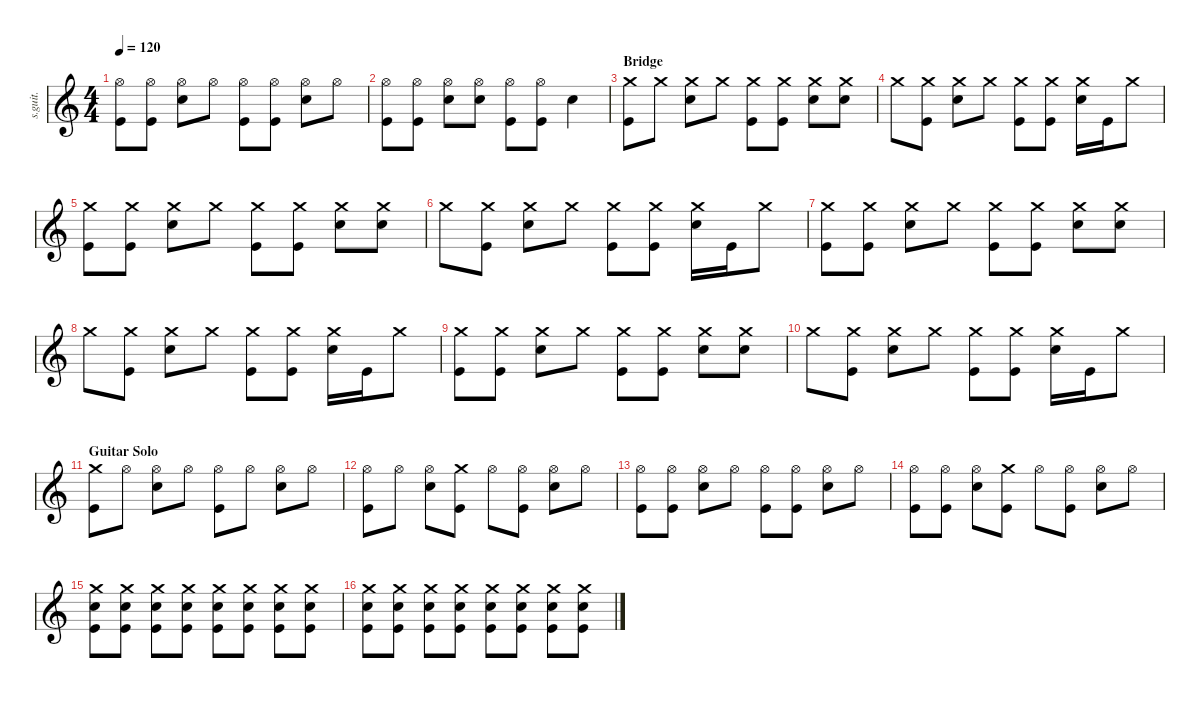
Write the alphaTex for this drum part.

\defaultSystemsLayout 4
\hideDynamics
\bracketExtendMode nobrackets
\track ("Patrick Wilson - Drums" "s.guit.") {instrument percussion}
\staff {score}
\articulation defaults
\ts (4 4)
\tempo 120
\clef g2
\ks c
("Hi-Hat (open)" "Kick (hit)").8{lyrics (0 "") lyrics (1 "") lyrics (2 "") lyrics (3 "") lyrics (4 "") dy f} ("Hi-Hat (open)" "Kick (hit)").8{lyrics (0 "") lyrics (1 "") lyrics (2 "") lyrics (3 "") lyrics (4 "")} ("Hi-Hat (open)" "Snare (hit) 2").8{lyrics (0 "") lyrics (1 "") lyrics (2 "") lyrics (3 "") lyrics (4 "")} "Hi-Hat (open)".8{lyrics (0 "") lyrics (1 "") lyrics (2 "") lyrics (3 "") lyrics (4 "")} ("Hi-Hat (open)" "Kick (hit)").8{lyrics (0 "") lyrics (1 "") lyrics (2 "") lyrics (3 "") lyrics (4 "")} ("Hi-Hat (open)" "Kick (hit)").8{lyrics (0 "") lyrics (1 "") lyrics (2 "") lyrics (3 "") lyrics (4 "")} ("Hi-Hat (open)" "Snare (hit) 2").8{lyrics (0 "") lyrics (1 "") lyrics (2 "") lyrics (3 "") lyrics (4 "")} "Hi-Hat (open)".8{lyrics (0 "") lyrics (1 "") lyrics (2 "") lyrics (3 "") lyrics (4 "")} |
("Hi-Hat (open)" "Kick (hit)").8{lyrics (0 "") lyrics (1 "") lyrics (2 "") lyrics (3 "") lyrics (4 "")} ("Hi-Hat (open)" "Kick (hit)").8{lyrics (0 "") lyrics (1 "") lyrics (2 "") lyrics (3 "") lyrics (4 "")} ("Hi-Hat (open)" "Snare (hit) 2").8{lyrics (0 "") lyrics (1 "") lyrics (2 "") lyrics (3 "") lyrics (4 "")} ("Hi-Hat (open)" "Snare (hit) 2").8{lyrics (0 "") lyrics (1 "") lyrics (2 "") lyrics (3 "") lyrics (4 "")} ("Hi-Hat (open)" "Kick (hit)").8{lyrics (0 "") lyrics (1 "") lyrics (2 "") lyrics (3 "") lyrics (4 "")} ("Hi-Hat (open)" "Kick (hit)").8{lyrics (0 "") lyrics (1 "") lyrics (2 "") lyrics (3 "") lyrics (4 "")} "Snare (hit) 2".4{lyrics (0 "") lyrics (1 "") lyrics (2 "") lyrics (3 "") lyrics (4 "")} |
\section ("" "Bridge")
("Crash medium (hit)" "Kick (hit)").8{lyrics (0 "") lyrics (1 "") lyrics (2 "") lyrics (3 "") lyrics (4 "")} "Crash medium (hit)".8{lyrics (0 "") lyrics (1 "") lyrics (2 "") lyrics (3 "") lyrics (4 "")} ("Crash medium (hit)" "Snare (hit) 2").8{lyrics (0 "") lyrics (1 "") lyrics (2 "") lyrics (3 "") lyrics (4 "")} "Crash medium (hit)".8{lyrics (0 "") lyrics (1 "") lyrics (2 "") lyrics (3 "") lyrics (4 "")} ("Crash medium (hit)" "Kick (hit)").8{lyrics (0 "") lyrics (1 "") lyrics (2 "") lyrics (3 "") lyrics (4 "")} ("Crash medium (hit)" "Kick (hit)").8{lyrics (0 "") lyrics (1 "") lyrics (2 "") lyrics (3 "") lyrics (4 "")} ("Crash medium (hit)" "Snare (hit) 2").8{lyrics (0 "") lyrics (1 "") lyrics (2 "") lyrics (3 "") lyrics (4 "")} ("Crash medium (hit)" "Snare (hit) 2").8{lyrics (0 "") lyrics (1 "") lyrics (2 "") lyrics (3 "") lyrics (4 "")} |
"Crash medium (hit)".8{lyrics (0 "") lyrics (1 "") lyrics (2 "") lyrics (3 "") lyrics (4 "")} ("Crash medium (hit)" "Kick (hit)").8{lyrics (0 "") lyrics (1 "") lyrics (2 "") lyrics (3 "") lyrics (4 "")} ("Crash medium (hit)" "Snare (hit) 2").8{lyrics (0 "") lyrics (1 "") lyrics (2 "") lyrics (3 "") lyrics (4 "")} "Crash medium (hit)".8{lyrics (0 "") lyrics (1 "") lyrics (2 "") lyrics (3 "") lyrics (4 "")} ("Crash medium (hit)" "Kick (hit)").8{lyrics (0 "") lyrics (1 "") lyrics (2 "") lyrics (3 "") lyrics (4 "")} ("Crash medium (hit)" "Kick (hit)").8{lyrics (0 "") lyrics (1 "") lyrics (2 "") lyrics (3 "") lyrics (4 "")} ("Crash medium (hit)" "Snare (hit) 2").16{lyrics (0 "") lyrics (1 "") lyrics (2 "") lyrics (3 "") lyrics (4 "")} "Kick (hit)".16{lyrics (0 "") lyrics (1 "") lyrics (2 "") lyrics (3 "") lyrics (4 "")} "Crash medium (hit)".8{lyrics (0 "") lyrics (1 "") lyrics (2 "") lyrics (3 "") lyrics (4 "")} |
("Crash medium (hit)" "Kick (hit)").8{lyrics (0 "") lyrics (1 "") lyrics (2 "") lyrics (3 "") lyrics (4 "")} ("Crash medium (hit)" "Kick (hit)").8{lyrics (0 "") lyrics (1 "") lyrics (2 "") lyrics (3 "") lyrics (4 "")} ("Crash medium (hit)" "Snare (hit) 2").8{lyrics (0 "") lyrics (1 "") lyrics (2 "") lyrics (3 "") lyrics (4 "")} "Crash medium (hit)".8{lyrics (0 "") lyrics (1 "") lyrics (2 "") lyrics (3 "") lyrics (4 "")} ("Crash medium (hit)" "Kick (hit)").8{lyrics (0 "") lyrics (1 "") lyrics (2 "") lyrics (3 "") lyrics (4 "")} ("Crash medium (hit)" "Kick (hit)").8{lyrics (0 "") lyrics (1 "") lyrics (2 "") lyrics (3 "") lyrics (4 "")} ("Crash medium (hit)" "Snare (hit) 2").8{lyrics (0 "") lyrics (1 "") lyrics (2 "") lyrics (3 "") lyrics (4 "")} ("Crash medium (hit)" "Snare (hit) 2").8{lyrics (0 "") lyrics (1 "") lyrics (2 "") lyrics (3 "") lyrics (4 "")} |
"Crash medium (hit)".8{lyrics (0 "") lyrics (1 "") lyrics (2 "") lyrics (3 "") lyrics (4 "")} ("Crash medium (hit)" "Kick (hit)").8{lyrics (0 "") lyrics (1 "") lyrics (2 "") lyrics (3 "") lyrics (4 "")} ("Crash medium (hit)" "Snare (hit) 2").8{lyrics (0 "") lyrics (1 "") lyrics (2 "") lyrics (3 "") lyrics (4 "")} "Crash medium (hit)".8{lyrics (0 "") lyrics (1 "") lyrics (2 "") lyrics (3 "") lyrics (4 "")} ("Crash medium (hit)" "Kick (hit)").8{lyrics (0 "") lyrics (1 "") lyrics (2 "") lyrics (3 "") lyrics (4 "")} ("Crash medium (hit)" "Kick (hit)").8{lyrics (0 "") lyrics (1 "") lyrics (2 "") lyrics (3 "") lyrics (4 "")} ("Crash medium (hit)" "Snare (hit) 2").16{lyrics (0 "") lyrics (1 "") lyrics (2 "") lyrics (3 "") lyrics (4 "")} "Kick (hit)".16{lyrics (0 "") lyrics (1 "") lyrics (2 "") lyrics (3 "") lyrics (4 "")} "Crash medium (hit)".8{lyrics (0 "") lyrics (1 "") lyrics (2 "") lyrics (3 "") lyrics (4 "")} |
("Crash medium (hit)" "Kick (hit)").8{lyrics (0 "") lyrics (1 "") lyrics (2 "") lyrics (3 "") lyrics (4 "")} ("Crash medium (hit)" "Kick (hit)").8{lyrics (0 "") lyrics (1 "") lyrics (2 "") lyrics (3 "") lyrics (4 "")} ("Crash medium (hit)" "Snare (hit) 2").8{lyrics (0 "") lyrics (1 "") lyrics (2 "") lyrics (3 "") lyrics (4 "")} "Crash medium (hit)".8{lyrics (0 "") lyrics (1 "") lyrics (2 "") lyrics (3 "") lyrics (4 "")} ("Crash medium (hit)" "Kick (hit)").8{lyrics (0 "") lyrics (1 "") lyrics (2 "") lyrics (3 "") lyrics (4 "")} ("Crash medium (hit)" "Kick (hit)").8{lyrics (0 "") lyrics (1 "") lyrics (2 "") lyrics (3 "") lyrics (4 "")} ("Crash medium (hit)" "Snare (hit) 2").8{lyrics (0 "") lyrics (1 "") lyrics (2 "") lyrics (3 "") lyrics (4 "")} ("Crash medium (hit)" "Snare (hit) 2").8{lyrics (0 "") lyrics (1 "") lyrics (2 "") lyrics (3 "") lyrics (4 "")} |
"Crash medium (hit)".8{lyrics (0 "") lyrics (1 "") lyrics (2 "") lyrics (3 "") lyrics (4 "")} ("Crash medium (hit)" "Kick (hit)").8{lyrics (0 "") lyrics (1 "") lyrics (2 "") lyrics (3 "") lyrics (4 "")} ("Crash medium (hit)" "Snare (hit) 2").8{lyrics (0 "") lyrics (1 "") lyrics (2 "") lyrics (3 "") lyrics (4 "")} "Crash medium (hit)".8{lyrics (0 "") lyrics (1 "") lyrics (2 "") lyrics (3 "") lyrics (4 "")} ("Crash medium (hit)" "Kick (hit)").8{lyrics (0 "") lyrics (1 "") lyrics (2 "") lyrics (3 "") lyrics (4 "")} ("Crash medium (hit)" "Kick (hit)").8{lyrics (0 "") lyrics (1 "") lyrics (2 "") lyrics (3 "") lyrics (4 "")} ("Crash medium (hit)" "Snare (hit) 2").16{lyrics (0 "") lyrics (1 "") lyrics (2 "") lyrics (3 "") lyrics (4 "")} "Kick (hit)".16{lyrics (0 "") lyrics (1 "") lyrics (2 "") lyrics (3 "") lyrics (4 "")} "Crash medium (hit)".8{lyrics (0 "") lyrics (1 "") lyrics (2 "") lyrics (3 "") lyrics (4 "")} |
("Crash medium (hit)" "Kick (hit)").8{lyrics (0 "") lyrics (1 "") lyrics (2 "") lyrics (3 "") lyrics (4 "")} ("Crash medium (hit)" "Kick (hit)").8{lyrics (0 "") lyrics (1 "") lyrics (2 "") lyrics (3 "") lyrics (4 "")} ("Crash medium (hit)" "Snare (hit) 2").8{lyrics (0 "") lyrics (1 "") lyrics (2 "") lyrics (3 "") lyrics (4 "")} "Crash medium (hit)".8{lyrics (0 "") lyrics (1 "") lyrics (2 "") lyrics (3 "") lyrics (4 "")} ("Crash medium (hit)" "Kick (hit)").8{lyrics (0 "") lyrics (1 "") lyrics (2 "") lyrics (3 "") lyrics (4 "")} ("Crash medium (hit)" "Kick (hit)").8{lyrics (0 "") lyrics (1 "") lyrics (2 "") lyrics (3 "") lyrics (4 "")} ("Crash medium (hit)" "Snare (hit) 2").8{lyrics (0 "") lyrics (1 "") lyrics (2 "") lyrics (3 "") lyrics (4 "")} ("Crash medium (hit)" "Snare (hit) 2").8{lyrics (0 "") lyrics (1 "") lyrics (2 "") lyrics (3 "") lyrics (4 "")} |
"Crash medium (hit)".8{lyrics (0 "") lyrics (1 "") lyrics (2 "") lyrics (3 "") lyrics (4 "")} ("Crash medium (hit)" "Kick (hit)").8{lyrics (0 "") lyrics (1 "") lyrics (2 "") lyrics (3 "") lyrics (4 "")} ("Crash medium (hit)" "Snare (hit) 2").8{lyrics (0 "") lyrics (1 "") lyrics (2 "") lyrics (3 "") lyrics (4 "")} "Crash medium (hit)".8{lyrics (0 "") lyrics (1 "") lyrics (2 "") lyrics (3 "") lyrics (4 "")} ("Crash medium (hit)" "Kick (hit)").8{lyrics (0 "") lyrics (1 "") lyrics (2 "") lyrics (3 "") lyrics (4 "")} ("Crash medium (hit)" "Kick (hit)").8{lyrics (0 "") lyrics (1 "") lyrics (2 "") lyrics (3 "") lyrics (4 "")} ("Crash medium (hit)" "Snare (hit) 2").16{lyrics (0 "") lyrics (1 "") lyrics (2 "") lyrics (3 "") lyrics (4 "")} "Kick (hit)".16{lyrics (0 "") lyrics (1 "") lyrics (2 "") lyrics (3 "") lyrics (4 "")} "Crash medium (hit)".8{lyrics (0 "") lyrics (1 "") lyrics (2 "") lyrics (3 "") lyrics (4 "")} |
\section ("" "Guitar Solo")
("Crash medium (hit)" "Kick (hit)").8{lyrics (0 "") lyrics (1 "") lyrics (2 "") lyrics (3 "") lyrics (4 "")} "Hi-Hat (open)".8{lyrics (0 "") lyrics (1 "") lyrics (2 "") lyrics (3 "") lyrics (4 "")} ("Hi-Hat (open)" "Snare (hit) 2").8{lyrics (0 "") lyrics (1 "") lyrics (2 "") lyrics (3 "") lyrics (4 "")} "Hi-Hat (open)".8{lyrics (0 "") lyrics (1 "") lyrics (2 "") lyrics (3 "") lyrics (4 "")} ("Hi-Hat (open)" "Kick (hit)").8{lyrics (0 "") lyrics (1 "") lyrics (2 "") lyrics (3 "") lyrics (4 "")} "Hi-Hat (open)".8{lyrics (0 "") lyrics (1 "") lyrics (2 "") lyrics (3 "") lyrics (4 "")} ("Hi-Hat (open)" "Snare (hit) 2").8{lyrics (0 "") lyrics (1 "") lyrics (2 "") lyrics (3 "") lyrics (4 "")} "Hi-Hat (open)".8{lyrics (0 "") lyrics (1 "") lyrics (2 "") lyrics (3 "") lyrics (4 "")} |
("Hi-Hat (open)" "Kick (hit)").8{lyrics (0 "") lyrics (1 "") lyrics (2 "") lyrics (3 "") lyrics (4 "")} "Hi-Hat (open)".8{lyrics (0 "") lyrics (1 "") lyrics (2 "") lyrics (3 "") lyrics (4 "")} ("Hi-Hat (open)" "Snare (hit) 2").8{lyrics (0 "") lyrics (1 "") lyrics (2 "") lyrics (3 "") lyrics (4 "")} ("Crash medium (hit)" "Kick (hit)").8{lyrics (0 "") lyrics (1 "") lyrics (2 "") lyrics (3 "") lyrics (4 "")} "Hi-Hat (open)".8{lyrics (0 "") lyrics (1 "") lyrics (2 "") lyrics (3 "") lyrics (4 "")} ("Hi-Hat (open)" "Kick (hit)").8{lyrics (0 "") lyrics (1 "") lyrics (2 "") lyrics (3 "") lyrics (4 "")} ("Hi-Hat (open)" "Snare (hit) 2").8{lyrics (0 "") lyrics (1 "") lyrics (2 "") lyrics (3 "") lyrics (4 "")} "Hi-Hat (open)".8{lyrics (0 "") lyrics (1 "") lyrics (2 "") lyrics (3 "") lyrics (4 "")} |
("Hi-Hat (open)" "Kick (hit)").8{lyrics (0 "") lyrics (1 "") lyrics (2 "") lyrics (3 "") lyrics (4 "")} ("Hi-Hat (open)" "Kick (hit)").8{lyrics (0 "") lyrics (1 "") lyrics (2 "") lyrics (3 "") lyrics (4 "")} ("Hi-Hat (open)" "Snare (hit) 2").8{lyrics (0 "") lyrics (1 "") lyrics (2 "") lyrics (3 "") lyrics (4 "")} "Hi-Hat (open)".8{lyrics (0 "") lyrics (1 "") lyrics (2 "") lyrics (3 "") lyrics (4 "")} ("Hi-Hat (open)" "Kick (hit)").8{lyrics (0 "") lyrics (1 "") lyrics (2 "") lyrics (3 "") lyrics (4 "")} ("Hi-Hat (open)" "Kick (hit)").8{lyrics (0 "") lyrics (1 "") lyrics (2 "") lyrics (3 "") lyrics (4 "")} ("Hi-Hat (open)" "Snare (hit) 2").8{lyrics (0 "") lyrics (1 "") lyrics (2 "") lyrics (3 "") lyrics (4 "")} "Hi-Hat (open)".8{lyrics (0 "") lyrics (1 "") lyrics (2 "") lyrics (3 "") lyrics (4 "")} |
("Hi-Hat (open)" "Kick (hit)").8{lyrics (0 "") lyrics (1 "") lyrics (2 "") lyrics (3 "") lyrics (4 "")} ("Hi-Hat (open)" "Kick (hit)").8{lyrics (0 "") lyrics (1 "") lyrics (2 "") lyrics (3 "") lyrics (4 "")} ("Hi-Hat (open)" "Snare (hit) 2").8{lyrics (0 "") lyrics (1 "") lyrics (2 "") lyrics (3 "") lyrics (4 "")} ("Crash medium (hit)" "Kick (hit)").8{lyrics (0 "") lyrics (1 "") lyrics (2 "") lyrics (3 "") lyrics (4 "")} "Hi-Hat (open)".8{lyrics (0 "") lyrics (1 "") lyrics (2 "") lyrics (3 "") lyrics (4 "")} ("Hi-Hat (open)" "Kick (hit)").8{lyrics (0 "") lyrics (1 "") lyrics (2 "") lyrics (3 "") lyrics (4 "")} ("Hi-Hat (open)" "Snare (hit) 2").8{lyrics (0 "") lyrics (1 "") lyrics (2 "") lyrics (3 "") lyrics (4 "")} "Hi-Hat (open)".8{lyrics (0 "") lyrics (1 "") lyrics (2 "") lyrics (3 "") lyrics (4 "")} |
("Crash medium (hit)" "Snare (hit) 2" "Kick (hit)").8{lyrics (0 "") lyrics (1 "") lyrics (2 "") lyrics (3 "") lyrics (4 "")} ("Crash medium (hit)" "Snare (hit) 2" "Kick (hit)").8{lyrics (0 "") lyrics (1 "") lyrics (2 "") lyrics (3 "") lyrics (4 "")} ("Crash medium (hit)" "Snare (hit) 2" "Kick (hit)").8{lyrics (0 "") lyrics (1 "") lyrics (2 "") lyrics (3 "") lyrics (4 "")} ("Crash medium (hit)" "Snare (hit) 2" "Kick (hit)").8{lyrics (0 "") lyrics (1 "") lyrics (2 "") lyrics (3 "") lyrics (4 "")} ("Crash medium (hit)" "Snare (hit) 2" "Kick (hit)").8{lyrics (0 "") lyrics (1 "") lyrics (2 "") lyrics (3 "") lyrics (4 "")} ("Crash medium (hit)" "Snare (hit) 2" "Kick (hit)").8{lyrics (0 "") lyrics (1 "") lyrics (2 "") lyrics (3 "") lyrics (4 "")} ("Crash medium (hit)" "Snare (hit) 2" "Kick (hit)").8{lyrics (0 "") lyrics (1 "") lyrics (2 "") lyrics (3 "") lyrics (4 "")} ("Crash medium (hit)" "Snare (hit) 2" "Kick (hit)").8{lyrics (0 "") lyrics (1 "") lyrics (2 "") lyrics (3 "") lyrics (4 "")} |
("Crash medium (hit)" "Snare (hit) 2" "Kick (hit)").8{lyrics (0 "") lyrics (1 "") lyrics (2 "") lyrics (3 "") lyrics (4 "")} ("Crash medium (hit)" "Snare (hit) 2" "Kick (hit)").8{lyrics (0 "") lyrics (1 "") lyrics (2 "") lyrics (3 "") lyrics (4 "")} ("Crash medium (hit)" "Snare (hit) 2" "Kick (hit)").8{lyrics (0 "") lyrics (1 "") lyrics (2 "") lyrics (3 "") lyrics (4 "")} ("Crash medium (hit)" "Snare (hit) 2" "Kick (hit)").8{lyrics (0 "") lyrics (1 "") lyrics (2 "") lyrics (3 "") lyrics (4 "")} ("Crash medium (hit)" "Snare (hit) 2" "Kick (hit)").8{lyrics (0 "") lyrics (1 "") lyrics (2 "") lyrics (3 "") lyrics (4 "")} ("Crash medium (hit)" "Snare (hit) 2" "Kick (hit)").8{lyrics (0 "") lyrics (1 "") lyrics (2 "") lyrics (3 "") lyrics (4 "")} ("Crash medium (hit)" "Snare (hit) 2" "Kick (hit)").8{lyrics (0 "") lyrics (1 "") lyrics (2 "") lyrics (3 "") lyrics (4 "")} ("Crash medium (hit)" "Snare (hit) 2" "Kick (hit)").8{lyrics (0 "") lyrics (1 "") lyrics (2 "") lyrics (3 "") lyrics (4 "")}
